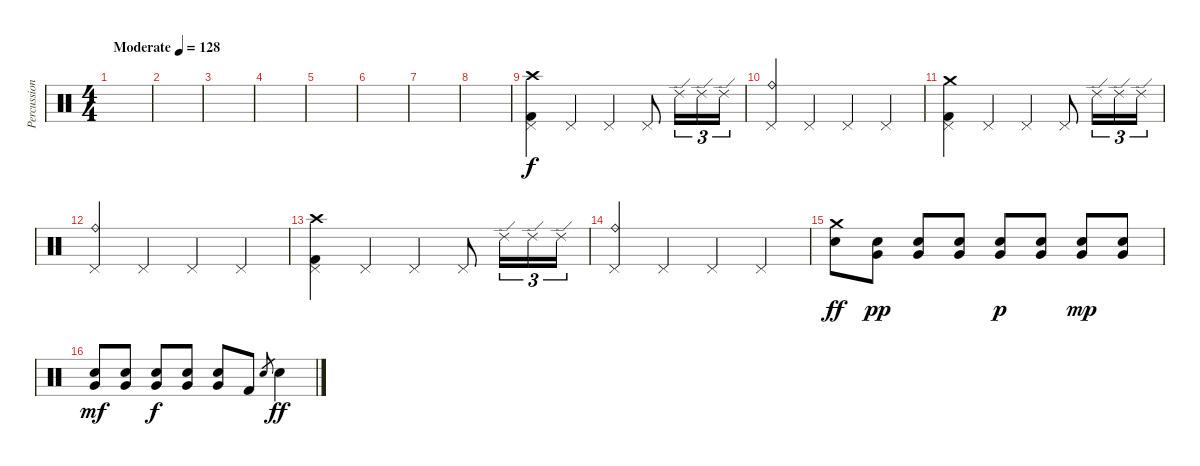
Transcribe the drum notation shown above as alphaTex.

\track ("Percussion" "Percussion") {instrument percussion}
\staff {score}
\articulation defaults
\ts (4 4)
\tempo (128 "Moderate")
\clef neutral
\ks c
|
|
|
|
|
|
|
|
("Crash high (hit)" "Pedal Hi-Hat (hit)" "Kick (hit) 2").4 "Pedal Hi-Hat (hit)".4 "Pedal Hi-Hat (hit)".4 "Pedal Hi-Hat (hit)".8 "Ride (edge) 2".16{tu (3 2)} "Ride (edge) 2".16{tu (3 2)} "Ride (edge) 2".16{tu (3 2)} |
("Ride (bell)" "Pedal Hi-Hat (hit)").4 "Pedal Hi-Hat (hit)".4 "Pedal Hi-Hat (hit)".4 "Pedal Hi-Hat (hit)".4 |
("Crash medium (hit)" "Pedal Hi-Hat (hit)" "Kick (hit) 2").4 "Pedal Hi-Hat (hit)".4 "Pedal Hi-Hat (hit)".4 "Pedal Hi-Hat (hit)".8 "Ride (edge) 2".16{tu (3 2)} "Ride (edge) 2".16{tu (3 2)} "Ride (edge) 2".16{tu (3 2)} |
("Ride (bell)" "Pedal Hi-Hat (hit)").4 "Pedal Hi-Hat (hit)".4 "Pedal Hi-Hat (hit)".4 "Pedal Hi-Hat (hit)".4 |
("Crash high (hit)" "Pedal Hi-Hat (hit)" "Kick (hit) 2").4 "Pedal Hi-Hat (hit)".4 "Pedal Hi-Hat (hit)".4 "Pedal Hi-Hat (hit)".8 "Ride (edge) 2".16{tu (3 2)} "Ride (edge) 2".16{tu (3 2)} "Ride (edge) 2".16{tu (3 2)} |
("Ride (bell)" "Pedal Hi-Hat (hit)").4 "Pedal Hi-Hat (hit)".4 "Pedal Hi-Hat (hit)".4 "Pedal Hi-Hat (hit)".4 |
("Crash medium (hit)" "Snare (hit) 2").8{dy ff} ("Very Low Tom (hit)" "Snare (hit) 2").8{dy pp} ("Very Low Tom (hit)" "Snare (hit) 2").8 ("Very Low Tom (hit)" "Snare (hit) 2").8 ("Very Low Tom (hit)" "Snare (hit) 2").8{dy p} ("Very Low Tom (hit)" "Snare (hit) 2").8 ("Very Low Tom (hit)" "Snare (hit) 2").8{dy mp} ("Very Low Tom (hit)" "Snare (hit) 2").8 |
("Very Low Tom (hit)" "Snare (hit) 2").8{dy mf} ("Very Low Tom (hit)" "Snare (hit) 2").8 ("Very Low Tom (hit)" "Snare (hit) 2").8{dy f} ("Very Low Tom (hit)" "Snare (hit) 2").8 ("Very Low Tom (hit)" "Snare (hit) 2").8 "Kick (hit) 2".8 "Snare (hit) 2".8{gr} "Snare (hit) 2".4{dy ff}
